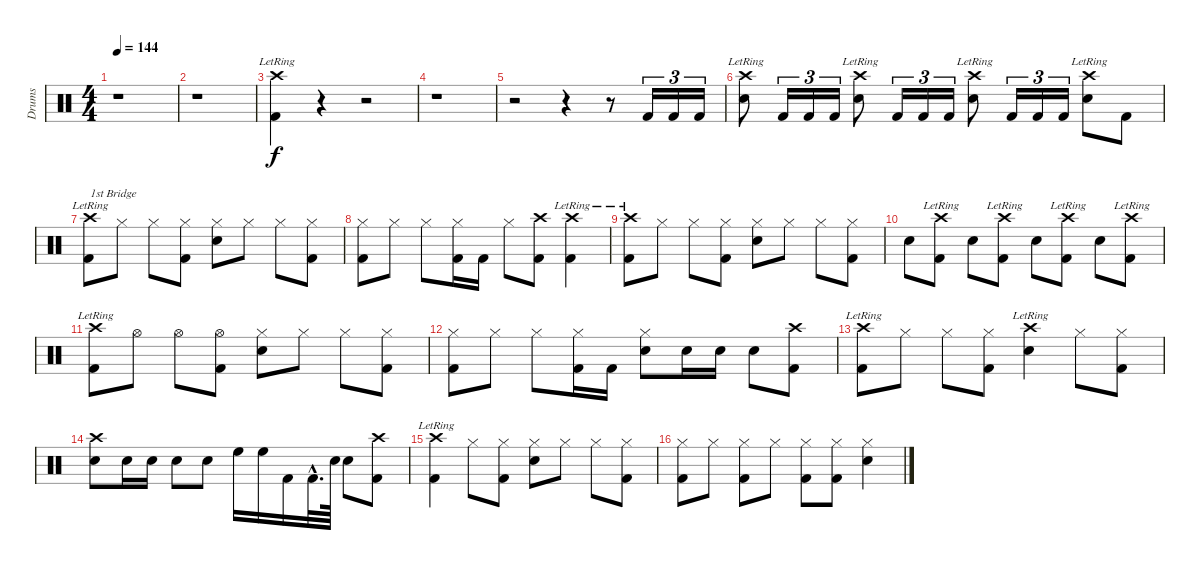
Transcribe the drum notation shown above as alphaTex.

\track ("Drums" "Drums") {instrument percussion}
\staff {score}
\articulation defaults
\ts (4 4)
\tempo 144
\clef neutral
\ks c
r.1{dy f} |
r.1 |
("Crash high (hit)"{lr} "Kick (hit) 2").4 r.4 r.2 |
r.1 |
r.2 r.4 r.8 "Kick (hit) 2".16{tu (3 2)} "Kick (hit) 2".16{tu (3 2)} "Kick (hit) 2".16{tu (3 2)} |
("Crash high (hit)"{lr} "Snare (hit) 2").8 "Kick (hit) 2".16{tu (3 2)} "Kick (hit) 2".16{tu (3 2)} "Kick (hit) 2".16{tu (3 2)} ("Crash high (hit)"{lr} "Snare (hit) 2").8 "Kick (hit) 2".16{tu (3 2)} "Kick (hit) 2".16{tu (3 2)} "Kick (hit) 2".16{tu (3 2)} ("Crash high (hit)"{lr} "Snare (hit) 2").8 "Kick (hit) 2".16{tu (3 2)} "Kick (hit) 2".16{tu (3 2)} "Kick (hit) 2".16{tu (3 2)} ("Crash high (hit)"{lr} "Snare (hit) 2").8 "Kick (hit) 2".8 |
("Crash high (hit)"{lr} "Kick (hit) 2").8{txt "1st Bridge"} "Hi-Hat (closed)".8 "Hi-Hat (closed)".8 ("Hi-Hat (closed)" "Kick (hit) 2").8 ("Hi-Hat (closed)" "Snare (hit) 2").8 "Hi-Hat (closed)".8 "Hi-Hat (closed)".8 ("Hi-Hat (closed)" "Kick (hit) 2").8 |
("Hi-Hat (closed)" "Kick (hit) 2").8 "Hi-Hat (closed)".8 "Hi-Hat (closed)".8 ("Hi-Hat (closed)" "Kick (hit) 2").16 "Kick (hit) 2".16 "Hi-Hat (closed)".8 ("Crash high (hit)" "Kick (hit) 2").8 ("Crash high (hit)"{lr} "Kick (hit) 2").4 |
("Crash high (hit)"{lr} "Kick (hit) 2").8 "Hi-Hat (closed)".8 "Hi-Hat (closed)".8 ("Hi-Hat (closed)" "Kick (hit) 2").8 ("Hi-Hat (closed)" "Snare (hit) 2").8 "Hi-Hat (closed)".8 "Hi-Hat (closed)".8 ("Hi-Hat (closed)" "Kick (hit) 2").8 |
"Snare (hit) 2".8 ("Crash high (hit)"{lr} "Kick (hit) 2").8 "Snare (hit) 2".8 ("Crash high (hit)"{lr} "Kick (hit) 2").8 "Snare (hit) 2".8 ("Crash high (hit)"{lr} "Kick (hit) 2").8 "Snare (hit) 2".8 ("Crash high (hit)"{lr} "Kick (hit) 2").8 |
("Crash high (hit)"{lr} "Kick (hit) 2").8 "Hi-Hat (open)".8 "Hi-Hat (open)".8 ("Hi-Hat (open)" "Kick (hit) 2").8 ("Hi-Hat (closed)" "Snare (hit) 2").8 "Hi-Hat (closed)".8 "Hi-Hat (closed)".8 ("Hi-Hat (closed)" "Kick (hit) 2").8 |
("Hi-Hat (closed)" "Kick (hit) 2").8 "Hi-Hat (closed)".8 "Hi-Hat (closed)".8 ("Hi-Hat (closed)" "Kick (hit) 2").16 "Kick (hit) 2".16 ("Hi-Hat (closed)" "Snare (hit) 2").8 "Snare (hit) 2".16 "Snare (hit) 2".16 "Snare (hit) 2".8 ("Crash high (hit)" "Kick (hit) 2").8 |
("Crash high (hit)"{lr} "Kick (hit) 2").8 "Hi-Hat (closed)".8 "Hi-Hat (closed)".8 ("Hi-Hat (closed)" "Kick (hit) 2").8 ("Crash high (hit)"{lr} "Snare (hit) 2").4 "Hi-Hat (closed)".8 ("Hi-Hat (closed)" "Kick (hit) 2").8 |
("Crash high (hit)" "Snare (hit) 2").8 "Snare (hit) 2".16 "Snare (hit) 2".16 "Snare (hit) 2".8 "Snare (hit) 2".8 "High Floor Tom (hit)".16 "High Floor Tom (hit)".16 "Kick (hit) 2".16 "Kick (hit) 2"{hac}.32{d} "Snare (hit) 2".64 "Snare (hit) 2".8 ("Crash high (hit)" "Kick (hit) 2").8 |
("Crash high (hit)"{lr} "Kick (hit) 2").4 "Hi-Hat (closed)".8 ("Hi-Hat (closed)" "Kick (hit) 2").8 ("Hi-Hat (closed)" "Snare (hit) 2").8 "Hi-Hat (closed)".8 "Hi-Hat (closed)".8 ("Hi-Hat (closed)" "Kick (hit) 2").8 |
("Hi-Hat (closed)" "Kick (hit) 2").8 "Hi-Hat (closed)".8 ("Hi-Hat (closed)" "Kick (hit) 2").8 "Hi-Hat (closed)".8 ("Hi-Hat (closed)" "Kick (hit) 2").8 ("Hi-Hat (closed)" "Kick (hit) 2").8 ("Hi-Hat (closed)" "Snare (hit) 2").4
